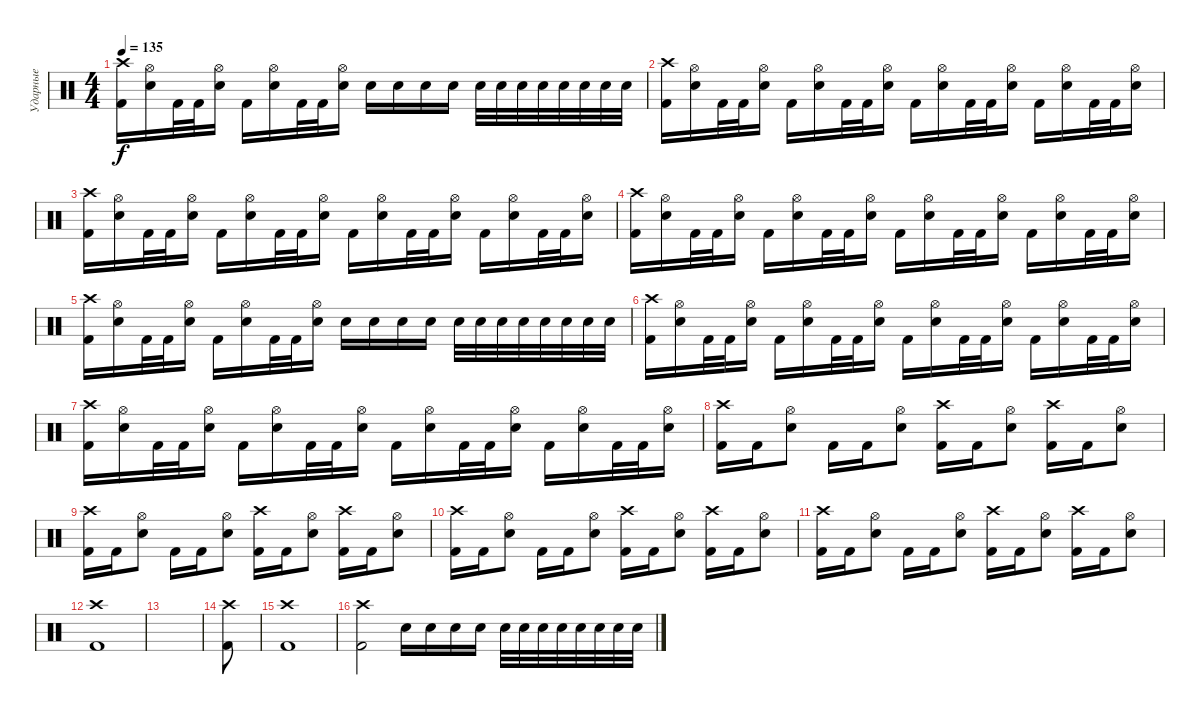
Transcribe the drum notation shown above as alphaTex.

\track ("Ударные" "Ударные") {instrument percussion}
\staff {score}
\articulation defaults
\ts (4 4)
\tempo 135
\clef neutral
\ks c
("Kick (hit) 2" "Crash high (hit)").16{dy f} ("Electric Snare (hit)" "Hi-Hat (open)").16 "Kick (hit) 2".32 "Kick (hit) 2".32 ("Electric Snare (hit)" "Hi-Hat (open)").16 "Kick (hit) 2".16 ("Electric Snare (hit)" "Hi-Hat (open)").16 "Kick (hit) 2".32 "Kick (hit) 2".32 ("Electric Snare (hit)" "Hi-Hat (open)").16 "Electric Snare (hit)".16 "Electric Snare (hit)".16 "Electric Snare (hit)".16 "Electric Snare (hit)".16 "Electric Snare (hit)".32 "Electric Snare (hit)".32 "Electric Snare (hit)".32 "Electric Snare (hit)".32 "Electric Snare (hit)".32 "Electric Snare (hit)".32 "Electric Snare (hit)".32 "Electric Snare (hit)".32 |
("Kick (hit) 2" "Crash high (hit)").16 ("Electric Snare (hit)" "Hi-Hat (open)").16 "Kick (hit) 2".32 "Kick (hit) 2".32 ("Electric Snare (hit)" "Hi-Hat (open)").16 "Kick (hit) 2".16 ("Electric Snare (hit)" "Hi-Hat (open)").16 "Kick (hit) 2".32 "Kick (hit) 2".32 ("Electric Snare (hit)" "Hi-Hat (open)").16 "Kick (hit) 2".16 ("Electric Snare (hit)" "Hi-Hat (open)").16 "Kick (hit) 2".32 "Kick (hit) 2".32 ("Electric Snare (hit)" "Hi-Hat (open)").16 "Kick (hit) 2".16 ("Electric Snare (hit)" "Hi-Hat (open)").16 "Kick (hit) 2".32 "Kick (hit) 2".32 ("Electric Snare (hit)" "Hi-Hat (open)").16 |
("Kick (hit) 2" "Crash high (hit)").16 ("Electric Snare (hit)" "Hi-Hat (open)").16 "Kick (hit) 2".32 "Kick (hit) 2".32 ("Electric Snare (hit)" "Hi-Hat (open)").16 "Kick (hit) 2".16 ("Electric Snare (hit)" "Hi-Hat (open)").16 "Kick (hit) 2".32 "Kick (hit) 2".32 ("Electric Snare (hit)" "Hi-Hat (open)").16 "Kick (hit) 2".16 ("Electric Snare (hit)" "Hi-Hat (open)").16 "Kick (hit) 2".32 "Kick (hit) 2".32 ("Electric Snare (hit)" "Hi-Hat (open)").16 "Kick (hit) 2".16 ("Electric Snare (hit)" "Hi-Hat (open)").16 "Kick (hit) 2".32 "Kick (hit) 2".32 ("Electric Snare (hit)" "Hi-Hat (open)").16 |
("Kick (hit) 2" "Crash high (hit)").16 ("Electric Snare (hit)" "Hi-Hat (open)").16 "Kick (hit) 2".32 "Kick (hit) 2".32 ("Electric Snare (hit)" "Hi-Hat (open)").16 "Kick (hit) 2".16 ("Electric Snare (hit)" "Hi-Hat (open)").16 "Kick (hit) 2".32 "Kick (hit) 2".32 ("Electric Snare (hit)" "Hi-Hat (open)").16 "Kick (hit) 2".16 ("Electric Snare (hit)" "Hi-Hat (open)").16 "Kick (hit) 2".32 "Kick (hit) 2".32 ("Electric Snare (hit)" "Hi-Hat (open)").16 "Kick (hit) 2".16 ("Electric Snare (hit)" "Hi-Hat (open)").16 "Kick (hit) 2".32 "Kick (hit) 2".32 ("Electric Snare (hit)" "Hi-Hat (open)").16 |
("Kick (hit) 2" "Crash high (hit)").16 ("Electric Snare (hit)" "Hi-Hat (open)").16 "Kick (hit) 2".32 "Kick (hit) 2".32 ("Electric Snare (hit)" "Hi-Hat (open)").16 "Kick (hit) 2".16 ("Electric Snare (hit)" "Hi-Hat (open)").16 "Kick (hit) 2".32 "Kick (hit) 2".32 ("Electric Snare (hit)" "Hi-Hat (open)").16 "Electric Snare (hit)".16 "Electric Snare (hit)".16 "Electric Snare (hit)".16 "Electric Snare (hit)".16 "Electric Snare (hit)".32 "Electric Snare (hit)".32 "Electric Snare (hit)".32 "Electric Snare (hit)".32 "Electric Snare (hit)".32 "Electric Snare (hit)".32 "Electric Snare (hit)".32 "Electric Snare (hit)".32 |
("Kick (hit) 2" "Crash high (hit)").16 ("Electric Snare (hit)" "Hi-Hat (open)").16 "Kick (hit) 2".32 "Kick (hit) 2".32 ("Electric Snare (hit)" "Hi-Hat (open)").16 "Kick (hit) 2".16 ("Electric Snare (hit)" "Hi-Hat (open)").16 "Kick (hit) 2".32 "Kick (hit) 2".32 ("Electric Snare (hit)" "Hi-Hat (open)").16 "Kick (hit) 2".16 ("Electric Snare (hit)" "Hi-Hat (open)").16 "Kick (hit) 2".32 "Kick (hit) 2".32 ("Electric Snare (hit)" "Hi-Hat (open)").16 "Kick (hit) 2".16 ("Electric Snare (hit)" "Hi-Hat (open)").16 "Kick (hit) 2".32 "Kick (hit) 2".32 ("Electric Snare (hit)" "Hi-Hat (open)").16 |
("Kick (hit) 2" "Crash high (hit)").16 ("Electric Snare (hit)" "Hi-Hat (open)").16 "Kick (hit) 2".32 "Kick (hit) 2".32 ("Electric Snare (hit)" "Hi-Hat (open)").16 "Kick (hit) 2".16 ("Electric Snare (hit)" "Hi-Hat (open)").16 "Kick (hit) 2".32 "Kick (hit) 2".32 ("Electric Snare (hit)" "Hi-Hat (open)").16 "Kick (hit) 2".16 ("Electric Snare (hit)" "Hi-Hat (open)").16 "Kick (hit) 2".32 "Kick (hit) 2".32 ("Electric Snare (hit)" "Hi-Hat (open)").16 "Kick (hit) 2".16 ("Electric Snare (hit)" "Hi-Hat (open)").16 "Kick (hit) 2".32 "Kick (hit) 2".32 ("Electric Snare (hit)" "Hi-Hat (open)").16 |
("Kick (hit) 2" "Crash high (hit)").16 "Kick (hit) 2".16 ("Electric Snare (hit)" "Hi-Hat (open)").8 "Kick (hit) 2".16 "Kick (hit) 2".16 ("Electric Snare (hit)" "Hi-Hat (open)").8 ("Kick (hit) 2" "Crash high (hit)").16 "Kick (hit) 2".16 ("Electric Snare (hit)" "Hi-Hat (open)").8 ("Kick (hit) 2" "Crash high (hit)").16 "Kick (hit) 2".16 ("Electric Snare (hit)" "Hi-Hat (open)").8 |
("Kick (hit) 2" "Crash high (hit)").16 "Kick (hit) 2".16 ("Electric Snare (hit)" "Hi-Hat (open)").8 "Kick (hit) 2".16 "Kick (hit) 2".16 ("Electric Snare (hit)" "Hi-Hat (open)").8 ("Kick (hit) 2" "Crash high (hit)").16 "Kick (hit) 2".16 ("Electric Snare (hit)" "Hi-Hat (open)").8 ("Kick (hit) 2" "Crash high (hit)").16 "Kick (hit) 2".16 ("Electric Snare (hit)" "Hi-Hat (open)").8 |
("Kick (hit) 2" "Crash high (hit)").16 "Kick (hit) 2".16 ("Electric Snare (hit)" "Hi-Hat (open)").8 "Kick (hit) 2".16 "Kick (hit) 2".16 ("Electric Snare (hit)" "Hi-Hat (open)").8 ("Kick (hit) 2" "Crash high (hit)").16 "Kick (hit) 2".16 ("Electric Snare (hit)" "Hi-Hat (open)").8 ("Kick (hit) 2" "Crash high (hit)").16 "Kick (hit) 2".16 ("Electric Snare (hit)" "Hi-Hat (open)").8 |
("Kick (hit) 2" "Crash high (hit)").16 "Kick (hit) 2".16 ("Electric Snare (hit)" "Hi-Hat (open)").8 "Kick (hit) 2".16 "Kick (hit) 2".16 ("Electric Snare (hit)" "Hi-Hat (open)").8 ("Kick (hit) 2" "Crash high (hit)").16 "Kick (hit) 2".16 ("Electric Snare (hit)" "Hi-Hat (open)").8 ("Kick (hit) 2" "Crash high (hit)").16 "Kick (hit) 2".16 ("Electric Snare (hit)" "Hi-Hat (open)").8 |
("Crash high (hit)" "Kick (hit) 2").1 |
|
("Kick (hit) 2" "Crash high (hit)").8 |
("Kick (hit) 2" "Crash high (hit)").1 |
("Kick (hit) 2" "Crash high (hit)").2 "Electric Snare (hit)".16 "Electric Snare (hit)".16 "Electric Snare (hit)".16 "Electric Snare (hit)".16 "Electric Snare (hit)".32 "Electric Snare (hit)".32 "Electric Snare (hit)".32 "Electric Snare (hit)".32 "Electric Snare (hit)".32 "Electric Snare (hit)".32 "Electric Snare (hit)".32 "Electric Snare (hit)".32
